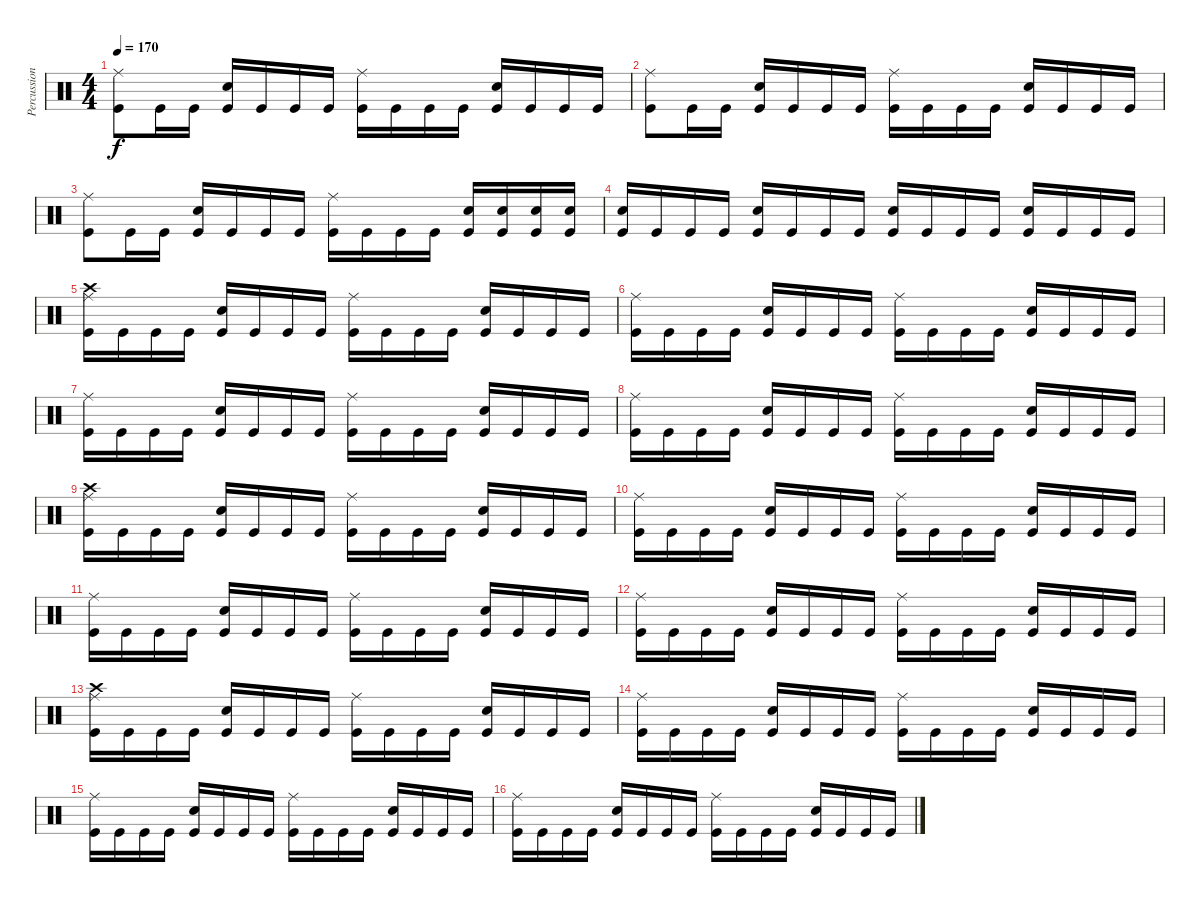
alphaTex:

\track ("Percussion" "Percussion") {instrument percussion}
\staff {score}
\articulation defaults
\ts (4 4)
\tempo 170
\clef neutral
\ks c
("Ride (middle)" "Kick (hit)").8{dy f} "Kick (hit)".16 "Kick (hit)".16 ("Snare (hit) 2" "Kick (hit)").16 "Kick (hit)".16 "Kick (hit)".16 "Kick (hit)".16 ("Ride (middle)" "Kick (hit)").16 "Kick (hit)".16 "Kick (hit)".16 "Kick (hit)".16 ("Snare (hit) 2" "Kick (hit)").16 "Kick (hit)".16 "Kick (hit)".16 "Kick (hit)".16 |
("Ride (middle)" "Kick (hit)").8 "Kick (hit)".16 "Kick (hit)".16 ("Snare (hit) 2" "Kick (hit)").16 "Kick (hit)".16 "Kick (hit)".16 "Kick (hit)".16 ("Ride (middle)" "Kick (hit)").16 "Kick (hit)".16 "Kick (hit)".16 "Kick (hit)".16 ("Snare (hit) 2" "Kick (hit)").16 "Kick (hit)".16 "Kick (hit)".16 "Kick (hit)".16 |
("Ride (middle)" "Kick (hit)").8 "Kick (hit)".16 "Kick (hit)".16 ("Snare (hit) 2" "Kick (hit)").16 "Kick (hit)".16 "Kick (hit)".16 "Kick (hit)".16 ("Ride (middle)" "Kick (hit)").16 "Kick (hit)".16 "Kick (hit)".16 "Kick (hit)".16 ("Snare (hit) 2" "Kick (hit)").16 ("Snare (hit) 2" "Kick (hit)").16 ("Snare (hit) 2" "Kick (hit)").16 ("Snare (hit) 2" "Kick (hit)").16 |
("Snare (hit) 2" "Kick (hit)").16 "Kick (hit)".16 "Kick (hit)".16 "Kick (hit)".16 ("Snare (hit) 2" "Kick (hit)").16 "Kick (hit)".16 "Kick (hit)".16 "Kick (hit)".16 ("Snare (hit) 2" "Kick (hit)").16 "Kick (hit)".16 "Kick (hit)".16 "Kick (hit)".16 ("Snare (hit) 2" "Kick (hit)").16 "Kick (hit)".16 "Kick (hit)".16 "Kick (hit)".16 |
("Ride (middle)" "Crash high (hit)" "Kick (hit)").16 "Kick (hit)".16 "Kick (hit)".16 "Kick (hit)".16 ("Snare (hit) 2" "Kick (hit)").16 "Kick (hit)".16 "Kick (hit)".16 "Kick (hit)".16 ("Ride (middle)" "Kick (hit)").16 "Kick (hit)".16 "Kick (hit)".16 "Kick (hit)".16 ("Snare (hit) 2" "Kick (hit)").16 "Kick (hit)".16 "Kick (hit)".16 "Kick (hit)".16 |
("Ride (middle)" "Kick (hit)").16 "Kick (hit)".16 "Kick (hit)".16 "Kick (hit)".16 ("Snare (hit) 2" "Kick (hit)").16 "Kick (hit)".16 "Kick (hit)".16 "Kick (hit)".16 ("Ride (middle)" "Kick (hit)").16 "Kick (hit)".16 "Kick (hit)".16 "Kick (hit)".16 ("Snare (hit) 2" "Kick (hit)").16 "Kick (hit)".16 "Kick (hit)".16 "Kick (hit)".16 |
("Ride (middle)" "Kick (hit)").16 "Kick (hit)".16 "Kick (hit)".16 "Kick (hit)".16 ("Snare (hit) 2" "Kick (hit)").16 "Kick (hit)".16 "Kick (hit)".16 "Kick (hit)".16 ("Ride (middle)" "Kick (hit)").16 "Kick (hit)".16 "Kick (hit)".16 "Kick (hit)".16 ("Snare (hit) 2" "Kick (hit)").16 "Kick (hit)".16 "Kick (hit)".16 "Kick (hit)".16 |
("Ride (middle)" "Kick (hit)").16 "Kick (hit)".16 "Kick (hit)".16 "Kick (hit)".16 ("Snare (hit) 2" "Kick (hit)").16 "Kick (hit)".16 "Kick (hit)".16 "Kick (hit)".16 ("Ride (middle)" "Kick (hit)").16 "Kick (hit)".16 "Kick (hit)".16 "Kick (hit)".16 ("Snare (hit) 2" "Kick (hit)").16 "Kick (hit)".16 "Kick (hit)".16 "Kick (hit)".16 |
("Ride (middle)" "Crash high (hit)" "Kick (hit)").16 "Kick (hit)".16 "Kick (hit)".16 "Kick (hit)".16 ("Snare (hit) 2" "Kick (hit)").16 "Kick (hit)".16 "Kick (hit)".16 "Kick (hit)".16 ("Ride (middle)" "Kick (hit)").16 "Kick (hit)".16 "Kick (hit)".16 "Kick (hit)".16 ("Snare (hit) 2" "Kick (hit)").16 "Kick (hit)".16 "Kick (hit)".16 "Kick (hit)".16 |
("Ride (middle)" "Kick (hit)").16 "Kick (hit)".16 "Kick (hit)".16 "Kick (hit)".16 ("Snare (hit) 2" "Kick (hit)").16 "Kick (hit)".16 "Kick (hit)".16 "Kick (hit)".16 ("Ride (middle)" "Kick (hit)").16 "Kick (hit)".16 "Kick (hit)".16 "Kick (hit)".16 ("Snare (hit) 2" "Kick (hit)").16 "Kick (hit)".16 "Kick (hit)".16 "Kick (hit)".16 |
("Ride (middle)" "Kick (hit)").16 "Kick (hit)".16 "Kick (hit)".16 "Kick (hit)".16 ("Snare (hit) 2" "Kick (hit)").16 "Kick (hit)".16 "Kick (hit)".16 "Kick (hit)".16 ("Ride (middle)" "Kick (hit)").16 "Kick (hit)".16 "Kick (hit)".16 "Kick (hit)".16 ("Snare (hit) 2" "Kick (hit)").16 "Kick (hit)".16 "Kick (hit)".16 "Kick (hit)".16 |
("Ride (middle)" "Kick (hit)").16 "Kick (hit)".16 "Kick (hit)".16 "Kick (hit)".16 ("Snare (hit) 2" "Kick (hit)").16 "Kick (hit)".16 "Kick (hit)".16 "Kick (hit)".16 ("Ride (middle)" "Kick (hit)").16 "Kick (hit)".16 "Kick (hit)".16 "Kick (hit)".16 ("Snare (hit) 2" "Kick (hit)").16 "Kick (hit)".16 "Kick (hit)".16 "Kick (hit)".16 |
("Ride (middle)" "Crash high (hit)" "Kick (hit)").16 "Kick (hit)".16 "Kick (hit)".16 "Kick (hit)".16 ("Snare (hit) 2" "Kick (hit)").16 "Kick (hit)".16 "Kick (hit)".16 "Kick (hit)".16 ("Ride (middle)" "Kick (hit)").16 "Kick (hit)".16 "Kick (hit)".16 "Kick (hit)".16 ("Snare (hit) 2" "Kick (hit)").16 "Kick (hit)".16 "Kick (hit)".16 "Kick (hit)".16 |
("Ride (middle)" "Kick (hit)").16 "Kick (hit)".16 "Kick (hit)".16 "Kick (hit)".16 ("Snare (hit) 2" "Kick (hit)").16 "Kick (hit)".16 "Kick (hit)".16 "Kick (hit)".16 ("Ride (middle)" "Kick (hit)").16 "Kick (hit)".16 "Kick (hit)".16 "Kick (hit)".16 ("Snare (hit) 2" "Kick (hit)").16 "Kick (hit)".16 "Kick (hit)".16 "Kick (hit)".16 |
("Ride (middle)" "Kick (hit)").16 "Kick (hit)".16 "Kick (hit)".16 "Kick (hit)".16 ("Snare (hit) 2" "Kick (hit)").16 "Kick (hit)".16 "Kick (hit)".16 "Kick (hit)".16 ("Ride (middle)" "Kick (hit)").16 "Kick (hit)".16 "Kick (hit)".16 "Kick (hit)".16 ("Snare (hit) 2" "Kick (hit)").16 "Kick (hit)".16 "Kick (hit)".16 "Kick (hit)".16 |
("Ride (middle)" "Kick (hit)").16 "Kick (hit)".16 "Kick (hit)".16 "Kick (hit)".16 ("Snare (hit) 2" "Kick (hit)").16 "Kick (hit)".16 "Kick (hit)".16 "Kick (hit)".16 ("Ride (middle)" "Kick (hit)").16 "Kick (hit)".16 "Kick (hit)".16 "Kick (hit)".16 ("Snare (hit) 2" "Kick (hit)").16 "Kick (hit)".16 "Kick (hit)".16 "Kick (hit)".16
